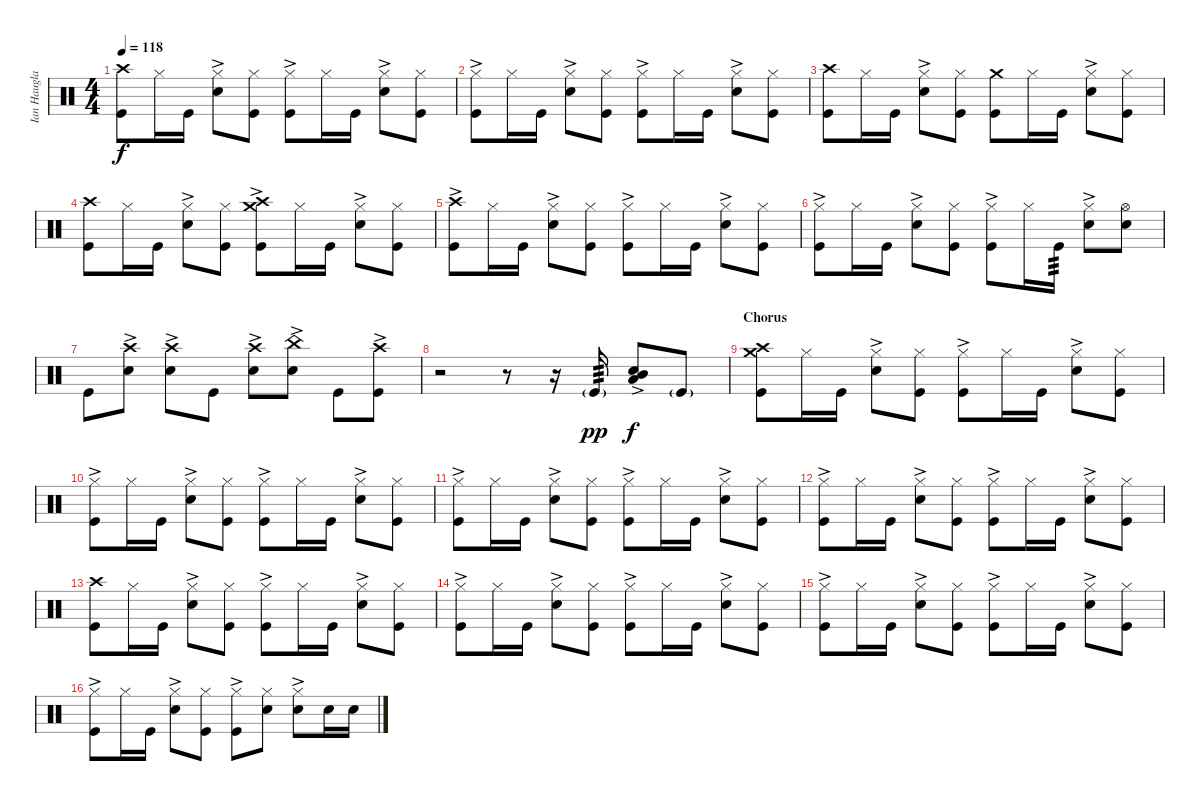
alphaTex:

\track ("Ian Haugland - Tama Imperialstar Kit - " "Ian Haugla") {instrument percussion}
\staff {score}
\articulation defaults
\ts (4 4)
\tempo 118
\clef neutral
\ks c
("Crash high (hit)" "Kick (hit)").8{dy f} "Hi-Hat (closed)".16 "Kick (hit)".16 ("Hi-Hat (closed)"{ac} "Snare (hit) 2").8 ("Hi-Hat (closed)" "Kick (hit)").8 ("Hi-Hat (closed)"{ac} "Kick (hit)").8 "Hi-Hat (closed)".16 "Kick (hit)".16 ("Hi-Hat (closed)"{ac} "Snare (hit) 2").8 ("Hi-Hat (closed)" "Kick (hit)").8 |
("Hi-Hat (closed)"{ac} "Kick (hit)").8 "Hi-Hat (closed)".16 "Kick (hit)".16 ("Hi-Hat (closed)"{ac} "Snare (hit) 2").8 ("Hi-Hat (closed)" "Kick (hit)").8 ("Hi-Hat (closed)"{ac} "Kick (hit)").8 "Hi-Hat (closed)".16 "Kick (hit)".16 ("Hi-Hat (closed)"{ac} "Snare (hit) 2").8 ("Hi-Hat (closed)" "Kick (hit)").8 |
("Crash high (hit)" "Kick (hit)").8 "Hi-Hat (closed)".16 "Kick (hit)".16 ("Hi-Hat (closed)"{ac} "Snare (hit) 2").8 ("Hi-Hat (closed)" "Kick (hit)").8 ("Crash medium (hit)" "Kick (hit)").8 "Hi-Hat (closed)".16 "Kick (hit)".16 ("Hi-Hat (closed)"{ac} "Snare (hit) 2").8 ("Hi-Hat (closed)" "Kick (hit)").8 |
("Crash high (hit)" "Kick (hit)").8 "Hi-Hat (closed)".16 "Kick (hit)".16 ("Hi-Hat (closed)"{ac} "Snare (hit) 2").8 ("Hi-Hat (closed)" "Kick (hit)").8 ("Crash high (hit)"{ac} "Crash medium (hit)"{ac} "Kick (hit)").8 "Hi-Hat (closed)".16 "Kick (hit)".16 ("Hi-Hat (closed)"{ac} "Snare (hit) 2").8 ("Hi-Hat (closed)" "Kick (hit)").8 |
("Crash high (hit)"{ac} "Kick (hit)").8 "Hi-Hat (closed)".16 "Kick (hit)".16 ("Hi-Hat (closed)"{ac} "Snare (hit) 2").8 ("Hi-Hat (closed)" "Kick (hit)").8 ("Hi-Hat (closed)"{ac} "Kick (hit)").8 "Hi-Hat (closed)".16 "Kick (hit)".16 ("Hi-Hat (closed)"{ac} "Snare (hit) 2").8 ("Hi-Hat (closed)" "Kick (hit)").8 |
("Hi-Hat (closed)"{ac} "Kick (hit)").8 "Hi-Hat (closed)".16 "Kick (hit)".16 ("Hi-Hat (closed)"{ac} "Snare (hit) 2").8 ("Hi-Hat (closed)" "Kick (hit)").8 ("Hi-Hat (closed)"{ac} "Kick (hit)").8 "Hi-Hat (closed)".16 "Kick (hit)".16{tp 3} ("Hi-Hat (closed)"{ac} "Snare (hit) 2").8 ("Hi-Hat (open)" "Snare (hit) 2").8 |
"Kick (hit)".8 ("Crash high (hit)"{ac} "Snare (hit) 2").8 ("Crash high (hit)"{ac} "Snare (hit) 2").8 "Kick (hit)".8 ("Crash high (hit)"{ac} "Snare (hit) 2").8 ("China (hit)"{ac} "Snare (hit) 2").8 "Kick (hit)".8 ("Crash high (hit)"{ac} "Kick (hit)").8 |
r.2 r.8 r.16 "Kick (hit)"{g}.16{tp 3 dy pp} ("Snare (hit) 2"{ac} "Mid Tom (hit)" "Low Floor Tom (hit)").8{dy f} "Kick (hit)"{g}.8 |
\section ("" "Chorus")
("Crash high (hit)" "Crash medium (hit)" "Kick (hit)").8 "Hi-Hat (closed)".16 "Kick (hit)".16 ("Hi-Hat (closed)"{ac} "Snare (hit) 2").8 ("Hi-Hat (closed)" "Kick (hit)").8 ("Hi-Hat (closed)"{ac} "Kick (hit)").8 "Hi-Hat (closed)".16 "Kick (hit)".16 ("Hi-Hat (closed)"{ac} "Snare (hit) 2").8 ("Hi-Hat (closed)" "Kick (hit)").8 |
("Hi-Hat (closed)"{ac} "Kick (hit)").8 "Hi-Hat (closed)".16 "Kick (hit)".16 ("Hi-Hat (closed)"{ac} "Snare (hit) 2").8 ("Hi-Hat (closed)" "Kick (hit)").8 ("Hi-Hat (closed)"{ac} "Kick (hit)").8 "Hi-Hat (closed)".16 "Kick (hit)".16 ("Hi-Hat (closed)"{ac} "Snare (hit) 2").8 ("Hi-Hat (closed)" "Kick (hit)").8 |
("Hi-Hat (closed)"{ac} "Kick (hit)").8 "Hi-Hat (closed)".16 "Kick (hit)".16 ("Hi-Hat (closed)"{ac} "Snare (hit) 2").8 ("Hi-Hat (closed)" "Kick (hit)").8 ("Hi-Hat (closed)"{ac} "Kick (hit)").8 "Hi-Hat (closed)".16 "Kick (hit)".16 ("Hi-Hat (closed)"{ac} "Snare (hit) 2").8 ("Hi-Hat (closed)" "Kick (hit)").8 |
("Hi-Hat (closed)"{ac} "Kick (hit)").8 "Hi-Hat (closed)".16 "Kick (hit)".16 ("Hi-Hat (closed)"{ac} "Snare (hit) 2").8 ("Hi-Hat (closed)" "Kick (hit)").8 ("Hi-Hat (closed)"{ac} "Kick (hit)").8 "Hi-Hat (closed)".16 "Kick (hit)".16 ("Hi-Hat (closed)"{ac} "Snare (hit) 2").8 ("Hi-Hat (closed)" "Kick (hit)").8 |
("Crash high (hit)" "Kick (hit)").8 "Hi-Hat (closed)".16 "Kick (hit)".16 ("Hi-Hat (closed)"{ac} "Snare (hit) 2").8 ("Hi-Hat (closed)" "Kick (hit)").8 ("Hi-Hat (closed)"{ac} "Kick (hit)").8 "Hi-Hat (closed)".16 "Kick (hit)".16 ("Hi-Hat (closed)"{ac} "Snare (hit) 2").8 ("Hi-Hat (closed)" "Kick (hit)").8 |
("Hi-Hat (closed)"{ac} "Kick (hit)").8 "Hi-Hat (closed)".16 "Kick (hit)".16 ("Hi-Hat (closed)"{ac} "Snare (hit) 2").8 ("Hi-Hat (closed)" "Kick (hit)").8 ("Hi-Hat (closed)"{ac} "Kick (hit)").8 "Hi-Hat (closed)".16 "Kick (hit)".16 ("Hi-Hat (closed)"{ac} "Snare (hit) 2").8 ("Hi-Hat (closed)" "Kick (hit)").8 |
("Hi-Hat (closed)"{ac} "Kick (hit)").8 "Hi-Hat (closed)".16 "Kick (hit)".16 ("Hi-Hat (closed)"{ac} "Snare (hit) 2").8 ("Hi-Hat (closed)" "Kick (hit)").8 ("Hi-Hat (closed)"{ac} "Kick (hit)").8 "Hi-Hat (closed)".16 "Kick (hit)".16 ("Hi-Hat (closed)"{ac} "Snare (hit) 2").8 ("Hi-Hat (closed)" "Kick (hit)").8 |
("Hi-Hat (closed)"{ac} "Kick (hit)").8 "Hi-Hat (closed)".16 "Kick (hit)".16 ("Hi-Hat (closed)"{ac} "Snare (hit) 2").8 ("Hi-Hat (closed)" "Kick (hit)").8 ("Hi-Hat (closed)"{ac} "Kick (hit)").8 ("Hi-Hat (closed)" "Snare (hit) 2").8 ("Hi-Hat (closed)"{ac} "Snare (hit) 2").8 "Snare (hit) 2".16 "Snare (hit) 2".16
